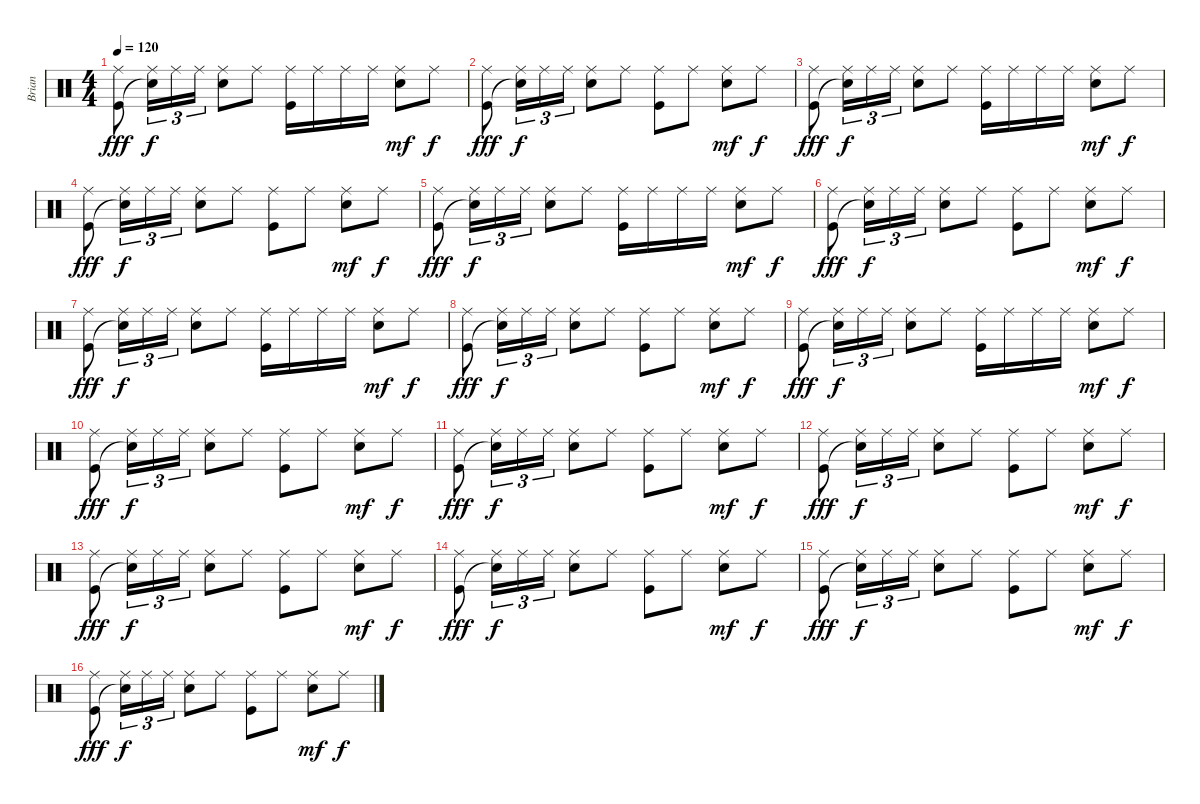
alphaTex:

\track ("Brian" "Brian") {instrument percussion}
\staff {score}
\articulation defaults
\ts (4 4)
\tempo 120
\clef neutral
\ks c
("Ride (middle)" "Kick (hit)").8{dy fff} ("Ride (middle)" "Snare (hit)"{t}).16{tu (3 2) dy f} "Ride (middle)".16{tu (3 2)} "Ride (middle)".16{tu (3 2)} ("Ride (middle)" "Snare (hit) 2").8 "Ride (middle)".8 ("Ride (middle)" "Kick (hit)").16 "Ride (middle)".16 "Ride (middle)".16 "Ride (middle)".16 ("Ride (middle)" "Snare (hit) 2").8{dy mf} "Ride (middle)".8{dy f} |
("Ride (middle)" "Kick (hit)").8{dy fff} ("Ride (middle)" "Snare (hit)"{t}).16{tu (3 2) dy f} "Ride (middle)".16{tu (3 2)} "Ride (middle)".16{tu (3 2)} ("Ride (middle)" "Snare (hit) 2").8 "Ride (middle)".8 ("Ride (middle)" "Kick (hit)").8 "Ride (middle)".8 ("Ride (middle)" "Snare (hit) 2").8{dy mf} "Ride (middle)".8{dy f} |
("Ride (middle)" "Kick (hit)").8{dy fff} ("Ride (middle)" "Snare (hit)"{t}).16{tu (3 2) dy f} "Ride (middle)".16{tu (3 2)} "Ride (middle)".16{tu (3 2)} ("Ride (middle)" "Snare (hit) 2").8 "Ride (middle)".8 ("Ride (middle)" "Kick (hit)").16 "Ride (middle)".16 "Ride (middle)".16 "Ride (middle)".16 ("Ride (middle)" "Snare (hit) 2").8{dy mf} "Ride (middle)".8{dy f} |
("Ride (middle)" "Kick (hit)").8{dy fff} ("Ride (middle)" "Snare (hit)"{t}).16{tu (3 2) dy f} "Ride (middle)".16{tu (3 2)} "Ride (middle)".16{tu (3 2)} ("Ride (middle)" "Snare (hit) 2").8 "Ride (middle)".8 ("Ride (middle)" "Kick (hit)").8 "Ride (middle)".8 ("Ride (middle)" "Snare (hit) 2").8{dy mf} "Ride (middle)".8{dy f} |
("Ride (middle)" "Kick (hit)").8{dy fff} ("Ride (middle)" "Snare (hit)"{t}).16{tu (3 2) dy f} "Ride (middle)".16{tu (3 2)} "Ride (middle)".16{tu (3 2)} ("Ride (middle)" "Snare (hit) 2").8 "Ride (middle)".8 ("Ride (middle)" "Kick (hit)").16 "Ride (middle)".16 "Ride (middle)".16 "Ride (middle)".16 ("Ride (middle)" "Snare (hit) 2").8{dy mf} "Ride (middle)".8{dy f} |
("Ride (middle)" "Kick (hit)").8{dy fff} ("Ride (middle)" "Snare (hit)"{t}).16{tu (3 2) dy f} "Ride (middle)".16{tu (3 2)} "Ride (middle)".16{tu (3 2)} ("Ride (middle)" "Snare (hit) 2").8 "Ride (middle)".8 ("Ride (middle)" "Kick (hit)").8 "Ride (middle)".8 ("Ride (middle)" "Snare (hit) 2").8{dy mf} "Ride (middle)".8{dy f} |
("Ride (middle)" "Kick (hit)").8{dy fff} ("Ride (middle)" "Snare (hit)"{t}).16{tu (3 2) dy f} "Ride (middle)".16{tu (3 2)} "Ride (middle)".16{tu (3 2)} ("Ride (middle)" "Snare (hit) 2").8 "Ride (middle)".8 ("Ride (middle)" "Kick (hit)").16 "Ride (middle)".16 "Ride (middle)".16 "Ride (middle)".16 ("Ride (middle)" "Snare (hit) 2").8{dy mf} "Ride (middle)".8{dy f} |
("Ride (middle)" "Kick (hit)").8{dy fff} ("Ride (middle)" "Snare (hit)"{t}).16{tu (3 2) dy f} "Ride (middle)".16{tu (3 2)} "Ride (middle)".16{tu (3 2)} ("Ride (middle)" "Snare (hit) 2").8 "Ride (middle)".8 ("Ride (middle)" "Kick (hit)").8 "Ride (middle)".8 ("Ride (middle)" "Snare (hit) 2").8{dy mf} "Ride (middle)".8{dy f} |
("Ride (middle)" "Kick (hit)").8{dy fff} ("Ride (middle)" "Snare (hit)"{t}).16{tu (3 2) dy f} "Ride (middle)".16{tu (3 2)} "Ride (middle)".16{tu (3 2)} ("Ride (middle)" "Snare (hit) 2").8 "Ride (middle)".8 ("Ride (middle)" "Kick (hit)").16 "Ride (middle)".16 "Ride (middle)".16 "Ride (middle)".16 ("Ride (middle)" "Snare (hit) 2").8{dy mf} "Ride (middle)".8{dy f} |
("Ride (middle)" "Kick (hit)").8{dy fff} ("Ride (middle)" "Snare (hit)"{t}).16{tu (3 2) dy f} "Ride (middle)".16{tu (3 2)} "Ride (middle)".16{tu (3 2)} ("Ride (middle)" "Snare (hit) 2").8 "Ride (middle)".8 ("Ride (middle)" "Kick (hit)").8 "Ride (middle)".8 ("Ride (middle)" "Snare (hit) 2").8{dy mf} "Ride (middle)".8{dy f} |
("Ride (middle)" "Kick (hit)").8{dy fff} ("Ride (middle)" "Snare (hit)"{t}).16{tu (3 2) dy f} "Ride (middle)".16{tu (3 2)} "Ride (middle)".16{tu (3 2)} ("Ride (middle)" "Snare (hit) 2").8 "Ride (middle)".8 ("Ride (middle)" "Kick (hit)").8 "Ride (middle)".8 ("Ride (middle)" "Snare (hit) 2").8{dy mf} "Ride (middle)".8{dy f} |
("Ride (middle)" "Kick (hit)").8{dy fff} ("Ride (middle)" "Snare (hit)"{t}).16{tu (3 2) dy f} "Ride (middle)".16{tu (3 2)} "Ride (middle)".16{tu (3 2)} ("Ride (middle)" "Snare (hit) 2").8 "Ride (middle)".8 ("Ride (middle)" "Kick (hit)").8 "Ride (middle)".8 ("Ride (middle)" "Snare (hit) 2").8{dy mf} "Ride (middle)".8{dy f} |
("Ride (middle)" "Kick (hit)").8{dy fff} ("Ride (middle)" "Snare (hit)"{t}).16{tu (3 2) dy f} "Ride (middle)".16{tu (3 2)} "Ride (middle)".16{tu (3 2)} ("Ride (middle)" "Snare (hit) 2").8 "Ride (middle)".8 ("Ride (middle)" "Kick (hit)").8 "Ride (middle)".8 ("Ride (middle)" "Snare (hit) 2").8{dy mf} "Ride (middle)".8{dy f} |
("Ride (middle)" "Kick (hit)").8{dy fff} ("Ride (middle)" "Snare (hit)"{t}).16{tu (3 2) dy f} "Ride (middle)".16{tu (3 2)} "Ride (middle)".16{tu (3 2)} ("Ride (middle)" "Snare (hit) 2").8 "Ride (middle)".8 ("Ride (middle)" "Kick (hit)").8 "Ride (middle)".8 ("Ride (middle)" "Snare (hit) 2").8{dy mf} "Ride (middle)".8{dy f} |
("Ride (middle)" "Kick (hit)").8{dy fff} ("Ride (middle)" "Snare (hit)"{t}).16{tu (3 2) dy f} "Ride (middle)".16{tu (3 2)} "Ride (middle)".16{tu (3 2)} ("Ride (middle)" "Snare (hit) 2").8 "Ride (middle)".8 ("Ride (middle)" "Kick (hit)").8 "Ride (middle)".8 ("Ride (middle)" "Snare (hit) 2").8{dy mf} "Ride (middle)".8{dy f} |
("Ride (middle)" "Kick (hit)").8{dy fff} ("Ride (middle)" "Snare (hit)"{t}).16{tu (3 2) dy f} "Ride (middle)".16{tu (3 2)} "Ride (middle)".16{tu (3 2)} ("Ride (middle)" "Snare (hit) 2").8 "Ride (middle)".8 ("Ride (middle)" "Kick (hit)").8 "Ride (middle)".8 ("Ride (middle)" "Snare (hit) 2").8{dy mf} "Ride (middle)".8{dy f}
